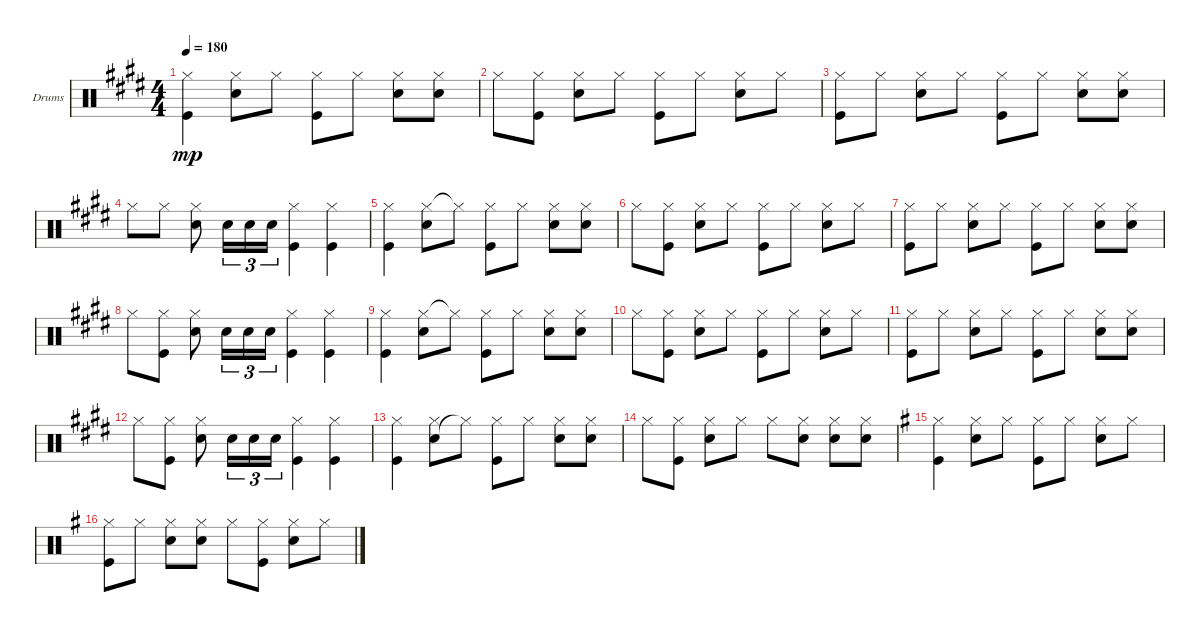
\defaultSystemsLayout 4
\bracketExtendMode groupsimilarinstruments
\firstSystemTrackNameOrientation horizontal
\otherSystemsTrackNameOrientation horizontal
\track ("Drumkit" "Drums") {instrument percussion}
\staff {score}
\articulation defaults
\ts (4 4)
\tempo 180
\clef neutral
\ks c#minor
("Hi-Hat (closed)" "Kick (hit)").4{dy mp} ("Snare (hit) 2" "Hi-Hat (closed)").8 "Hi-Hat (closed)".8 ("Hi-Hat (closed)" "Kick (hit)").8 "Hi-Hat (closed)".8 ("Hi-Hat (closed)" "Snare (hit) 2").8 ("Hi-Hat (closed)" "Snare (hit) 2").8 |
"Hi-Hat (closed)".8 ("Hi-Hat (closed)" "Kick (hit)").8 ("Snare (hit) 2" "Hi-Hat (closed)").8 "Hi-Hat (closed)".8 ("Hi-Hat (closed)" "Kick (hit)").8 "Hi-Hat (closed)".8 ("Hi-Hat (closed)" "Snare (hit) 2").8 "Hi-Hat (closed)".8 |
("Hi-Hat (closed)" "Kick (hit)").8 "Hi-Hat (closed)".8 ("Hi-Hat (closed)" "Snare (hit) 2").8 "Hi-Hat (closed)".8 ("Hi-Hat (closed)" "Kick (hit)").8 "Hi-Hat (closed)".8 ("Hi-Hat (closed)" "Snare (hit) 2").8 ("Snare (hit) 2" "Hi-Hat (closed)").8 |
"Hi-Hat (closed)".8 "Hi-Hat (closed)".8 ("Hi-Hat (closed)" "Snare (hit) 2").8 "Snare (hit) 2".16{tu (3 2)} "Snare (hit) 2".16{tu (3 2)} "Snare (hit) 2".16{tu (3 2)} ("Hi-Hat (closed)" "Kick (hit)").4 ("Kick (hit)" "Hi-Hat (closed)").4 |
("Hi-Hat (closed)" "Kick (hit)").4 ("Hi-Hat (closed)" "Snare (hit) 2").8 "Hi-Hat (closed)"{t}.8 ("Hi-Hat (closed)" "Kick (hit)").8 "Hi-Hat (closed)".8 ("Hi-Hat (closed)" "Snare (hit) 2").8 ("Snare (hit) 2" "Hi-Hat (closed)").8 |
"Hi-Hat (closed)".8 ("Hi-Hat (closed)" "Kick (hit)").8 ("Hi-Hat (closed)" "Snare (hit) 2").8 "Hi-Hat (closed)".8 ("Hi-Hat (closed)" "Kick (hit)").8 "Hi-Hat (closed)".8 ("Hi-Hat (closed)" "Snare (hit) 2").8 "Hi-Hat (closed)".8 |
("Hi-Hat (closed)" "Kick (hit)").8 "Hi-Hat (closed)".8 ("Hi-Hat (closed)" "Snare (hit) 2").8 "Hi-Hat (closed)".8 ("Hi-Hat (closed)" "Kick (hit)").8 "Hi-Hat (closed)".8 ("Hi-Hat (closed)" "Snare (hit) 2").8 ("Hi-Hat (closed)" "Snare (hit) 2").8 |
"Hi-Hat (closed)".8 ("Hi-Hat (closed)" "Kick (hit)").8 ("Hi-Hat (closed)" "Snare (hit) 2").8 "Snare (hit) 2".16{tu (3 2)} "Snare (hit) 2".16{tu (3 2)} "Snare (hit) 2".16{tu (3 2)} ("Hi-Hat (closed)" "Kick (hit)").4 ("Kick (hit)" "Hi-Hat (closed)").4 |
("Hi-Hat (closed)" "Kick (hit)").4 ("Hi-Hat (closed)" "Snare (hit) 2").8 "Hi-Hat (closed)"{t}.8 ("Hi-Hat (closed)" "Kick (hit)").8 "Hi-Hat (closed)".8 ("Hi-Hat (closed)" "Snare (hit) 2").8 ("Hi-Hat (closed)" "Snare (hit) 2").8 |
"Hi-Hat (closed)".8 ("Hi-Hat (closed)" "Kick (hit)").8 ("Hi-Hat (closed)" "Snare (hit) 2").8 "Hi-Hat (closed)".8 ("Kick (hit)" "Hi-Hat (closed)").8 "Hi-Hat (closed)".8 ("Hi-Hat (closed)" "Snare (hit) 2").8 "Hi-Hat (closed)".8 |
("Hi-Hat (closed)" "Kick (hit)").8 "Hi-Hat (closed)".8 ("Hi-Hat (closed)" "Snare (hit) 2").8 "Hi-Hat (closed)".8 ("Hi-Hat (closed)" "Kick (hit)").8 "Hi-Hat (closed)".8 ("Hi-Hat (closed)" "Snare (hit) 2").8 ("Snare (hit) 2" "Hi-Hat (closed)").8 |
"Hi-Hat (closed)".8 ("Hi-Hat (closed)" "Kick (hit)").8 ("Hi-Hat (closed)" "Snare (hit) 2").8 "Snare (hit) 2".16{tu (3 2)} "Snare (hit) 2".16{tu (3 2)} "Snare (hit) 2".16{tu (3 2)} ("Hi-Hat (closed)" "Kick (hit)").4 ("Kick (hit)" "Hi-Hat (closed)").4 |
("Hi-Hat (closed)" "Kick (hit)").4 ("Snare (hit) 2" "Hi-Hat (closed)").8 "Hi-Hat (closed)"{t}.8 ("Hi-Hat (closed)" "Kick (hit)").8 "Hi-Hat (closed)".8 ("Snare (hit) 2" "Hi-Hat (closed)").8 ("Snare (hit) 2" "Hi-Hat (closed)").8 |
"Hi-Hat (closed)".8 ("Hi-Hat (closed)" "Kick (hit)").8 ("Hi-Hat (closed)" "Snare (hit) 2").8 "Hi-Hat (closed)".8 "Hi-Hat (closed)".8 ("Hi-Hat (closed)" "Snare (hit) 2").8 ("Snare (hit) 2" "Hi-Hat (closed)").8 ("Snare (hit) 2" "Hi-Hat (closed)").8 |
\ks g
("Hi-Hat (closed)" "Kick (hit)").4 ("Hi-Hat (closed)" "Snare (hit) 2").8 "Hi-Hat (closed)".8 ("Hi-Hat (closed)" "Kick (hit)").8 "Hi-Hat (closed)".8 ("Hi-Hat (closed)" "Snare (hit) 2").8 "Hi-Hat (closed)".8 |
("Hi-Hat (closed)" "Kick (hit)").8 "Hi-Hat (closed)".8 ("Hi-Hat (closed)" "Snare (hit) 2").8 ("Snare (hit) 2" "Hi-Hat (closed)").8 "Hi-Hat (closed)".8 ("Hi-Hat (closed)" "Kick (hit)").8 ("Hi-Hat (closed)" "Snare (hit) 2").8 "Hi-Hat (closed)".8
